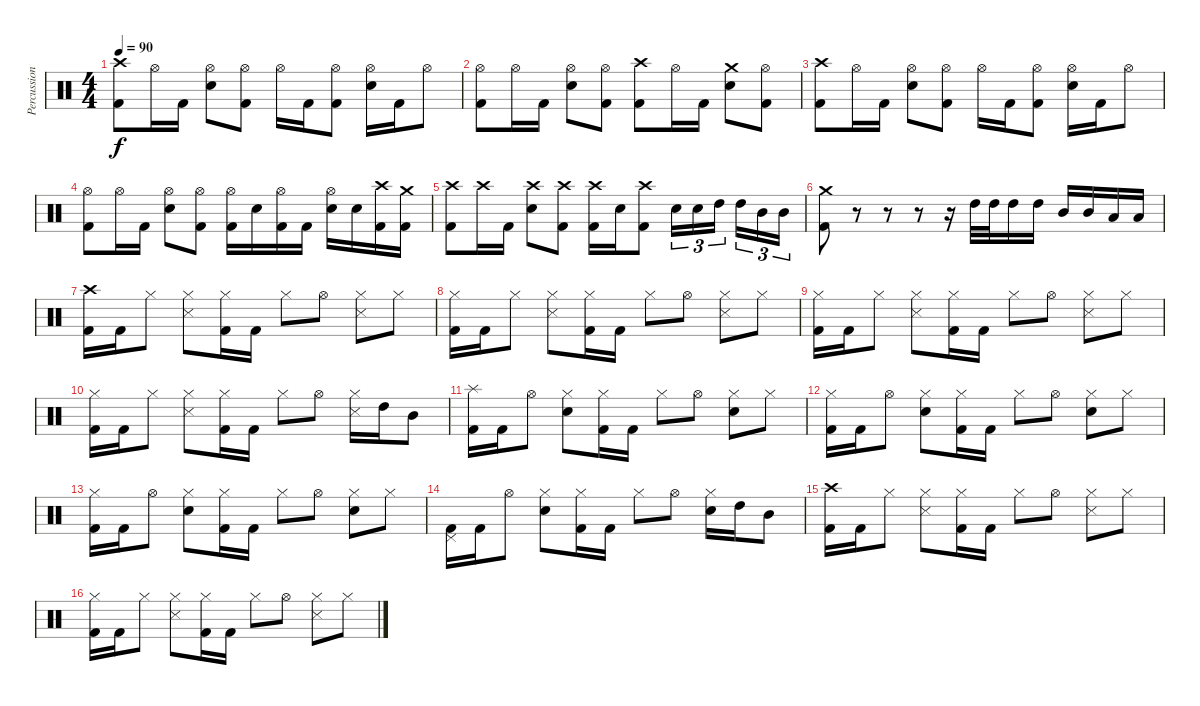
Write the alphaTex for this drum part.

\track ("Percussion" "Percussion") {instrument percussion}
\staff {score}
\articulation defaults
\ts (4 4)
\tempo 90
\clef neutral
\ks c
("Crash high (hit)" "Kick (hit) 2").8{dy f} "Hi-Hat (open)".16 "Kick (hit) 2".16 ("Hi-Hat (open)" "Snare (hit) 2").8 ("Hi-Hat (open)" "Kick (hit) 2").8 "Hi-Hat (open)".16 "Kick (hit) 2".16 ("Hi-Hat (open)" "Kick (hit) 2").8 ("Hi-Hat (open)" "Snare (hit) 2").16 "Kick (hit) 2".16 "Hi-Hat (open)".8 |
("Hi-Hat (open)" "Kick (hit) 2").8 "Hi-Hat (open)".16 "Kick (hit) 2".16 ("Hi-Hat (open)" "Snare (hit) 2").8 ("Hi-Hat (open)" "Kick (hit) 2").8 ("Crash high (hit)" "Kick (hit) 2").8 "Hi-Hat (open)".16 "Kick (hit) 2".16 ("Crash medium (hit)" "Snare (hit) 2").8 ("Hi-Hat (open)" "Kick (hit) 2").8 |
("Crash high (hit)" "Kick (hit) 2").8 "Hi-Hat (open)".16 "Kick (hit) 2".16 ("Hi-Hat (open)" "Snare (hit) 2").8 ("Hi-Hat (open)" "Kick (hit) 2").8 "Hi-Hat (open)".16 "Kick (hit) 2".16 ("Hi-Hat (open)" "Kick (hit) 2").8 ("Hi-Hat (open)" "Snare (hit) 2").16 "Kick (hit) 2".16 "Hi-Hat (open)".8 |
("Hi-Hat (open)" "Kick (hit) 2").8 "Hi-Hat (open)".16 "Kick (hit) 2".16 ("Hi-Hat (open)" "Snare (hit) 2").8 ("Hi-Hat (open)" "Kick (hit) 2").8 ("Hi-Hat (open)" "Kick (hit) 2").16 "Snare (hit) 2".16 ("Hi-Hat (open)" "Kick (hit) 2").16 "Kick (hit) 2".16 ("Hi-Hat (open)" "Snare (hit) 2").16 "Snare (hit) 2".16 ("Crash high (hit)" "Kick (hit) 2").16 ("Crash medium (hit)" "Kick (hit) 2").16 |
("Crash high (hit)" "Kick (hit) 2").8 "Crash high (hit)".16 "Kick (hit) 2".16 ("Crash high (hit)" "Snare (hit) 2").8 ("Crash high (hit)" "Kick (hit) 2").8 ("Crash high (hit)" "Kick (hit) 2").16 "Snare (hit) 2".16 ("Crash high (hit)" "Kick (hit) 2").8 "Snare (hit) 2".16{tu (3 2)} "Snare (hit) 2".16{tu (3 2)} "High Tom (hit)".16{tu (3 2) beam splitsecondary} "High Tom (hit)".16{tu (3 2)} "Mid Tom (hit)".16{tu (3 2)} "Mid Tom (hit)".16{tu (3 2)} |
("Crash medium (hit)" "Kick (hit) 2").8 r.8 r.8 r.8 r.16 "High Tom (hit)".32 "High Tom (hit)".32 "High Tom (hit)".16 "High Tom (hit)".16 "Mid Tom (hit)".16 "Mid Tom (hit)".16 "Low Floor Tom (hit)".16 "Low Floor Tom (hit)".16 |
("Crash high (hit)" "Kick (hit) 2").16 "Kick (hit) 2".16 "Hi-Hat (closed)".8 ("Hi-Hat (closed)" "Snare (side stick) 3").8 ("Hi-Hat (closed)" "Kick (hit) 2").16 "Kick (hit) 2".16 "Hi-Hat (closed)".8 "Hi-Hat (open)".8 ("Hi-Hat (closed)" "Snare (side stick) 3").8 "Hi-Hat (closed)".8 |
("Hi-Hat (closed)" "Kick (hit) 2").16 "Kick (hit) 2".16 "Hi-Hat (closed)".8 ("Hi-Hat (closed)" "Snare (side stick) 3").8 ("Hi-Hat (closed)" "Kick (hit) 2").16 "Kick (hit) 2".16 "Hi-Hat (closed)".8 "Hi-Hat (open)".8 ("Hi-Hat (closed)" "Snare (side stick) 3").8 "Hi-Hat (closed)".8 |
("Hi-Hat (closed)" "Kick (hit) 2").16 "Kick (hit) 2".16 "Hi-Hat (closed)".8 ("Hi-Hat (closed)" "Snare (side stick) 3").8 ("Hi-Hat (closed)" "Kick (hit) 2").16 "Kick (hit) 2".16 "Hi-Hat (closed)".8 "Hi-Hat (open)".8 ("Hi-Hat (closed)" "Snare (side stick) 3").8 "Hi-Hat (closed)".8 |
("Hi-Hat (closed)" "Kick (hit) 2").16 "Kick (hit) 2".16 "Hi-Hat (closed)".8 ("Hi-Hat (closed)" "Snare (side stick) 3").8 ("Hi-Hat (closed)" "Kick (hit) 2").16 "Kick (hit) 2".16 "Hi-Hat (closed)".8 "Hi-Hat (open)".8 ("Hi-Hat (closed)" "Snare (side stick) 3").16 "High Tom (hit)".16 "Mid Tom (hit)".8 |
("Splash (hit)" "Kick (hit) 2").16 "Kick (hit) 2".16 "Hi-Hat (open)".8 ("Hi-Hat (closed)" "Electric Snare (hit)").8 ("Hi-Hat (closed)" "Kick (hit) 2").16 "Kick (hit) 2".16 "Hi-Hat (closed)".8 "Hi-Hat (open)".8 ("Hi-Hat (closed)" "Electric Snare (hit)").8 "Hi-Hat (closed)".8 |
("Hi-Hat (closed)" "Kick (hit) 2").16 "Kick (hit) 2".16 "Hi-Hat (open)".8 ("Hi-Hat (closed)" "Electric Snare (hit)").8 ("Hi-Hat (closed)" "Kick (hit) 2").16 "Kick (hit) 2".16 "Hi-Hat (closed)".8 "Hi-Hat (open)".8 ("Hi-Hat (closed)" "Electric Snare (hit)").8 "Hi-Hat (closed)".8 |
("Hi-Hat (closed)" "Kick (hit) 2").16 "Kick (hit) 2".16 "Hi-Hat (open)".8 ("Hi-Hat (closed)" "Electric Snare (hit)").8 ("Hi-Hat (closed)" "Kick (hit) 2").16 "Kick (hit) 2".16 "Hi-Hat (closed)".8 "Hi-Hat (open)".8 ("Hi-Hat (closed)" "Electric Snare (hit)").8 "Hi-Hat (closed)".8 |
("Pedal Hi-Hat (hit)" "Kick (hit) 2").16 "Kick (hit) 2".16 "Hi-Hat (open)".8 ("Hi-Hat (closed)" "Electric Snare (hit)").8 ("Hi-Hat (closed)" "Kick (hit) 2").16 "Kick (hit) 2".16 "Hi-Hat (closed)".8 "Hi-Hat (open)".8 ("Hi-Hat (closed)" "Electric Snare (hit)").16 "High Tom (hit)".16 "Mid Tom (hit)".8 |
("Crash high (hit)" "Kick (hit) 2").16 "Kick (hit) 2".16 "Hi-Hat (closed)".8 ("Hi-Hat (closed)" "Snare (side stick) 3").8 ("Hi-Hat (closed)" "Kick (hit) 2").16 "Kick (hit) 2".16 "Hi-Hat (closed)".8 "Hi-Hat (open)".8 ("Hi-Hat (closed)" "Snare (side stick) 3").8 "Hi-Hat (closed)".8 |
("Hi-Hat (closed)" "Kick (hit) 2").16 "Kick (hit) 2".16 "Hi-Hat (closed)".8 ("Hi-Hat (closed)" "Snare (side stick) 3").8 ("Hi-Hat (closed)" "Kick (hit) 2").16 "Kick (hit) 2".16 "Hi-Hat (closed)".8 "Hi-Hat (open)".8 ("Hi-Hat (closed)" "Snare (side stick) 3").8 "Hi-Hat (closed)".8
